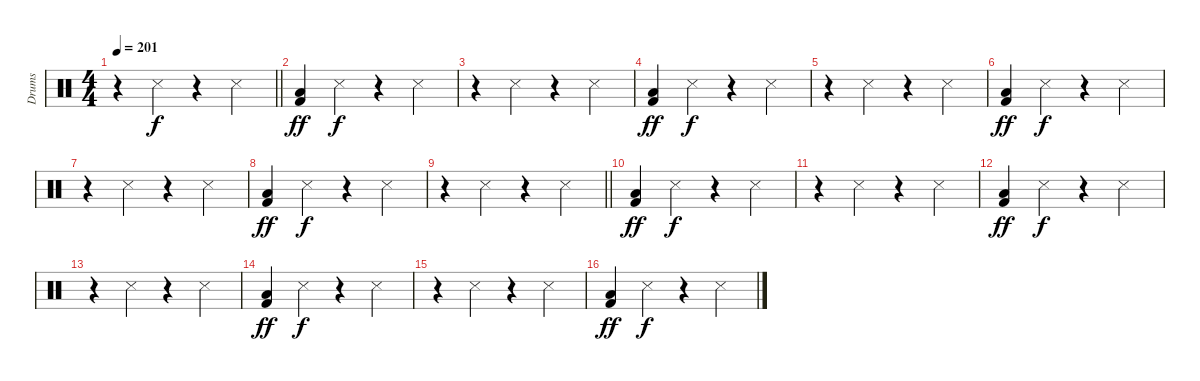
\track ("Drums" "Drums") {instrument percussion}
\staff {score}
\articulation defaults
\ts (4 4)
\tempo 201
\clef neutral
\barLineRight lightlight
\ks c
r.4{dy f} "Snare (side stick) 3".4 r.4 "Snare (side stick) 3".4 |
("Low Floor Tom (hit)" "Kick (hit) 2").4{dy ff} "Snare (side stick) 3".4{dy f} r.4 "Snare (side stick) 3".4 |
r.4 "Snare (side stick) 3".4 r.4 "Snare (side stick) 3".4 |
("Low Floor Tom (hit)" "Kick (hit) 2").4{dy ff} "Snare (side stick) 3".4{dy f} r.4 "Snare (side stick) 3".4 |
r.4 "Snare (side stick) 3".4 r.4 "Snare (side stick) 3".4 |
("Low Floor Tom (hit)" "Kick (hit) 2").4{dy ff} "Snare (side stick) 3".4{dy f} r.4 "Snare (side stick) 3".4 |
r.4 "Snare (side stick) 3".4 r.4 "Snare (side stick) 3".4 |
("Low Floor Tom (hit)" "Kick (hit) 2").4{dy ff} "Snare (side stick) 3".4{dy f} r.4 "Snare (side stick) 3".4 |
\barLineRight lightlight
r.4 "Snare (side stick) 3".4 r.4 "Snare (side stick) 3".4 |
("Low Floor Tom (hit)" "Kick (hit) 2").4{dy ff} "Snare (side stick) 3".4{dy f} r.4 "Snare (side stick) 3".4 |
r.4 "Snare (side stick) 3".4 r.4 "Snare (side stick) 3".4 |
("Low Floor Tom (hit)" "Kick (hit) 2").4{dy ff} "Snare (side stick) 3".4{dy f} r.4 "Snare (side stick) 3".4 |
r.4 "Snare (side stick) 3".4 r.4 "Snare (side stick) 3".4 |
("Low Floor Tom (hit)" "Kick (hit) 2").4{dy ff} "Snare (side stick) 3".4{dy f} r.4 "Snare (side stick) 3".4 |
r.4 "Snare (side stick) 3".4 r.4 "Snare (side stick) 3".4 |
("Low Floor Tom (hit)" "Kick (hit) 2").4{dy ff} "Snare (side stick) 3".4{dy f} r.4 "Snare (side stick) 3".4
